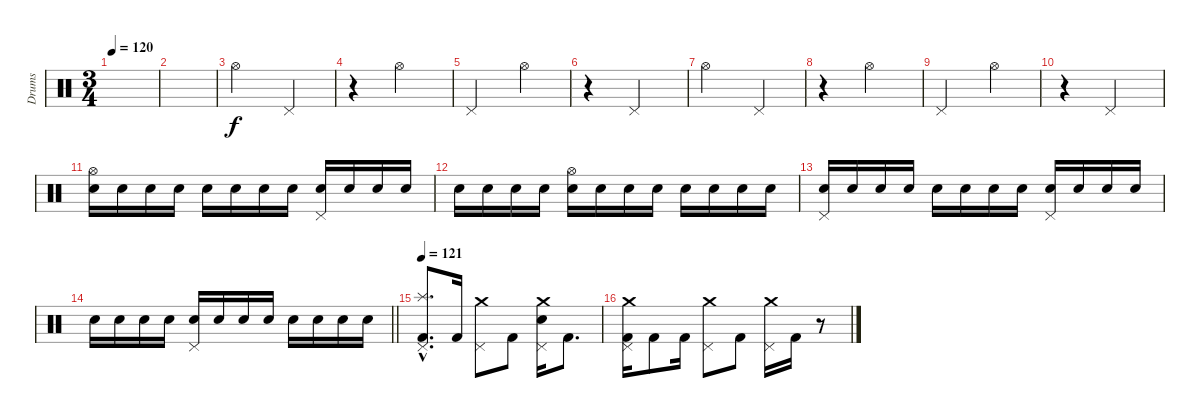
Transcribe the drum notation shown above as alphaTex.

\track ("Drums" "Drums") {instrument percussion}
\staff {score}
\articulation defaults
\ts (3 4)
\tempo 120
\clef neutral
\ks c
|
|
"Hi-Hat (open)".2{volume 7} "Pedal Hi-Hat (hit)".4 |
r.4 "Hi-Hat (open)".2 |
"Pedal Hi-Hat (hit)".2 "Hi-Hat (open)".4 |
r.4 "Pedal Hi-Hat (hit)".2 |
"Hi-Hat (open)".2 "Pedal Hi-Hat (hit)".4 |
r.4 "Hi-Hat (open)".2 |
"Pedal Hi-Hat (hit)".2 "Hi-Hat (open)".4 |
r.4 "Pedal Hi-Hat (hit)".2 |
("Hi-Hat (open)" "Electric Snare (hit)").16{volume 8} "Electric Snare (hit)".16 "Electric Snare (hit)".16 "Electric Snare (hit)".16 "Electric Snare (hit)".16 "Electric Snare (hit)".16 "Electric Snare (hit)".16 "Electric Snare (hit)".16 ("Pedal Hi-Hat (hit)" "Electric Snare (hit)").16 "Electric Snare (hit)".16 "Electric Snare (hit)".16 "Electric Snare (hit)".16 |
"Electric Snare (hit)".16 "Electric Snare (hit)".16 "Electric Snare (hit)".16 "Electric Snare (hit)".16 ("Hi-Hat (open)" "Electric Snare (hit)").16 "Electric Snare (hit)".16 "Electric Snare (hit)".16 "Electric Snare (hit)".16 "Electric Snare (hit)".16 "Electric Snare (hit)".16 "Electric Snare (hit)".16 "Electric Snare (hit)".16 |
("Pedal Hi-Hat (hit)" "Electric Snare (hit)").16{volume 16} "Electric Snare (hit)".16 "Electric Snare (hit)".16 "Electric Snare (hit)".16 "Electric Snare (hit)".16 "Electric Snare (hit)".16 "Electric Snare (hit)".16 "Electric Snare (hit)".16 ("Pedal Hi-Hat (hit)" "Electric Snare (hit)").16 "Electric Snare (hit)".16 "Electric Snare (hit)".16 "Electric Snare (hit)".16 |
\barLineRight lightlight "Electric Snare (hit)".16 "Electric Snare (hit)".16 "Electric Snare (hit)".16 "Electric Snare (hit)".16
("Pedal Hi-Hat (hit)" "Electric Snare (hit)").16 "Electric Snare (hit)".16 "Electric Snare (hit)".16 "Electric Snare (hit)".16 "Electric Snare (hit)".16 "Electric Snare (hit)".16 "Electric Snare (hit)".16 "Electric Snare (hit)".16 |
\section ("" "")
\tempo 121
("Splash (hit)"{hac} "Pedal Hi-Hat (hit)" "Kick (hit) 2").8{d} "Kick (hit) 2".16 ("Crash medium (hit)" "Pedal Hi-Hat (hit)").8 "Kick (hit) 2".8 ("Crash medium (hit)" "Pedal Hi-Hat (hit)" "Electric Snare (hit)").16 "Kick (hit) 2".8{d} |
("Crash medium (hit)" "Pedal Hi-Hat (hit)" "Kick (hit) 2").16 "Kick (hit) 2".8 "Kick (hit) 2".16 ("Crash medium (hit)" "Pedal Hi-Hat (hit)").8 "Kick (hit) 2".8 ("Crash medium (hit)" "Pedal Hi-Hat (hit)").16 "Kick (hit) 2".16 r.8
